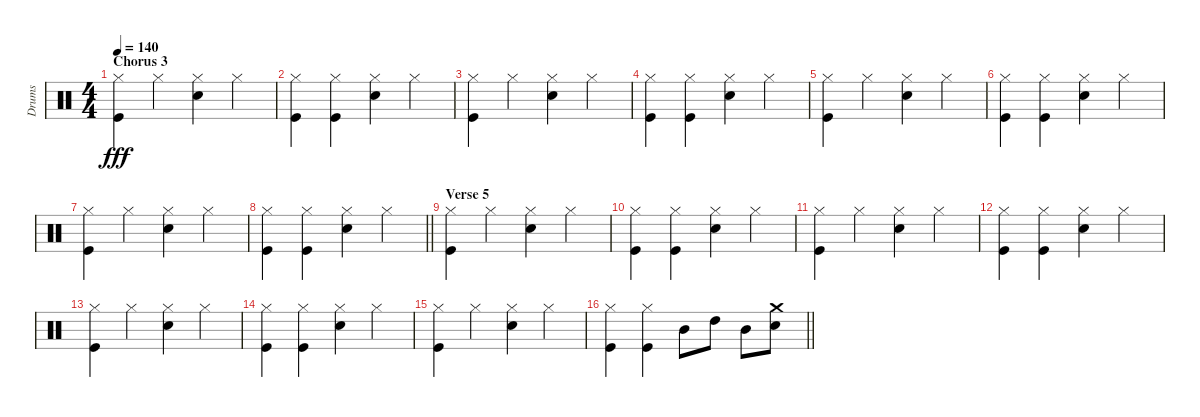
\track ("Drums" "Drums") {instrument percussion}
\staff {score}
\articulation defaults
\ts (4 4)
\section ("" "Chorus 3")
\tempo 140
\clef neutral
\ks c
("Hi-Hat (closed)" "Kick (hit)").4{dy fff} "Hi-Hat (closed)".4 ("Hi-Hat (closed)" "Snare (hit) 2").4 "Hi-Hat (closed)".4 |
("Hi-Hat (closed)" "Kick (hit)").4 ("Hi-Hat (closed)" "Kick (hit)").4 ("Hi-Hat (closed)" "Snare (hit) 2").4 "Hi-Hat (closed)".4 |
("Hi-Hat (closed)" "Kick (hit)").4 "Hi-Hat (closed)".4 ("Hi-Hat (closed)" "Snare (hit) 2").4 "Hi-Hat (closed)".4 |
("Hi-Hat (closed)" "Kick (hit)").4 ("Hi-Hat (closed)" "Kick (hit)").4 ("Hi-Hat (closed)" "Snare (hit) 2").4 "Hi-Hat (closed)".4 |
("Hi-Hat (closed)" "Kick (hit)").4 "Hi-Hat (closed)".4 ("Hi-Hat (closed)" "Snare (hit) 2").4 "Hi-Hat (closed)".4 |
("Hi-Hat (closed)" "Kick (hit)").4 ("Hi-Hat (closed)" "Kick (hit)").4 ("Hi-Hat (closed)" "Snare (hit) 2").4 "Hi-Hat (closed)".4 |
("Hi-Hat (closed)" "Kick (hit)").4 "Hi-Hat (closed)".4 ("Hi-Hat (closed)" "Snare (hit) 2").4 "Hi-Hat (closed)".4 |
\barLineRight lightlight
("Hi-Hat (closed)" "Kick (hit)").4 ("Hi-Hat (closed)" "Kick (hit)").4 ("Hi-Hat (closed)" "Snare (hit) 2").4 "Hi-Hat (closed)".4 |
\section ("" "Verse 5")
("Hi-Hat (closed)" "Kick (hit)").4 "Hi-Hat (closed)".4 ("Hi-Hat (closed)" "Snare (hit) 2").4 "Hi-Hat (closed)".4 |
("Hi-Hat (closed)" "Kick (hit)").4 ("Hi-Hat (closed)" "Kick (hit)").4 ("Hi-Hat (closed)" "Snare (hit) 2").4 "Hi-Hat (closed)".4 |
("Hi-Hat (closed)" "Kick (hit)").4 "Hi-Hat (closed)".4 ("Hi-Hat (closed)" "Snare (hit) 2").4 "Hi-Hat (closed)".4 |
("Hi-Hat (closed)" "Kick (hit)").4 ("Hi-Hat (closed)" "Kick (hit)").4 ("Hi-Hat (closed)" "Snare (hit) 2").4 "Hi-Hat (closed)".4 |
("Hi-Hat (closed)" "Kick (hit)").4 "Hi-Hat (closed)".4 ("Hi-Hat (closed)" "Snare (hit) 2").4 "Hi-Hat (closed)".4 |
("Hi-Hat (closed)" "Kick (hit)").4 ("Hi-Hat (closed)" "Kick (hit)").4 ("Hi-Hat (closed)" "Snare (hit) 2").4 "Hi-Hat (closed)".4 |
("Hi-Hat (closed)" "Kick (hit)").4 "Hi-Hat (closed)".4 ("Hi-Hat (closed)" "Snare (hit) 2").4 "Hi-Hat (closed)".4 |
\barLineRight lightlight
("Hi-Hat (closed)" "Kick (hit)").4 ("Hi-Hat (closed)" "Kick (hit)").4 "Mid Tom (hit)".8 "High Tom (hit)".8 "Mid Tom (hit)".8 ("Crash medium (hit)" "Snare (hit) 2").8
